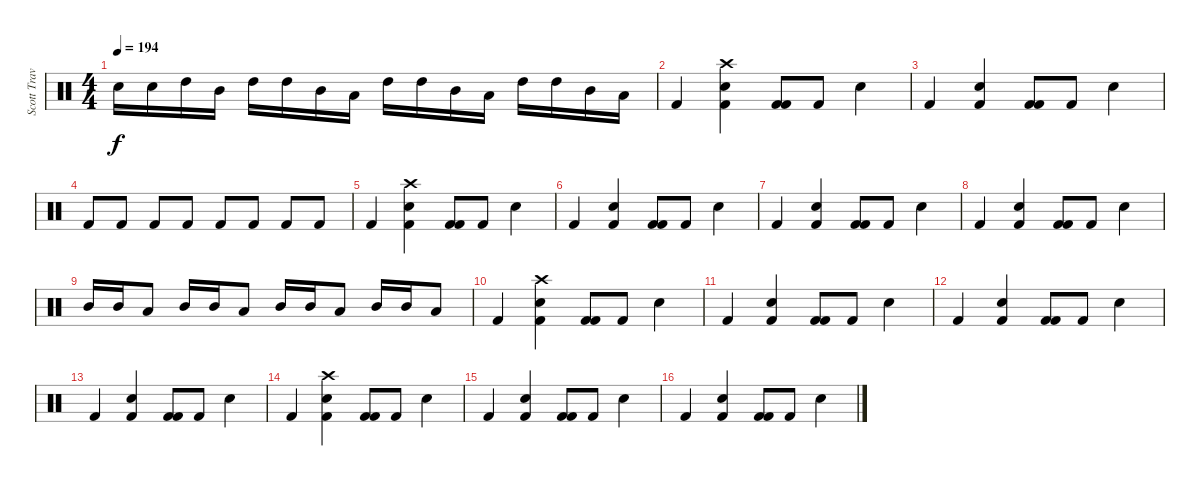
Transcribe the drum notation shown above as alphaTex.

\track ("Scott Travis" "Scott Trav") {instrument percussion}
\staff {score}
\articulation defaults
\ts (4 4)
\tempo 194
\clef neutral
\ks c "Snare (hit) 2".16{dy f} "Snare (hit) 2".16 "High Tom (hit)".16 "Mid Tom (hit)".16 "High Tom (hit)".16 "High Tom (hit)".16 "Mid Tom (hit)".16 "Low Tom (hit)".16 "High Tom (hit)".16 "High Tom (hit)".16 "Mid Tom (hit)".16 "Low Tom (hit)".16 "High Tom (hit)".16 "High Tom (hit)".16 "Mid Tom (hit)".16 "Low Tom (hit)".16
|
"Kick (hit) 2".4 ("Kick (hit) 2" "Crash high (hit)" "Snare (hit) 2").4 ("Kick (hit) 2" "Kick (hit) 2").8 "Kick (hit) 2".8 "Snare (hit) 2".4 |
"Kick (hit) 2".4 ("Kick (hit) 2" "Snare (hit) 2").4 ("Kick (hit) 2" "Kick (hit) 2").8 "Kick (hit) 2".8 "Snare (hit) 2".4 |
"Kick (hit) 2".8 "Kick (hit) 2".8 "Kick (hit) 2".8 "Kick (hit) 2".8 "Kick (hit) 2".8 "Kick (hit) 2".8 "Kick (hit) 2".8 "Kick (hit) 2".8 |
"Kick (hit) 2".4 ("Kick (hit) 2" "Crash high (hit)" "Snare (hit) 2").4 ("Kick (hit) 2" "Kick (hit) 2").8 "Kick (hit) 2".8 "Snare (hit) 2".4 |
"Kick (hit) 2".4 ("Kick (hit) 2" "Snare (hit) 2").4 ("Kick (hit) 2" "Kick (hit) 2").8 "Kick (hit) 2".8 "Snare (hit) 2".4 |
"Kick (hit) 2".4 ("Kick (hit) 2" "Snare (hit) 2").4 ("Kick (hit) 2" "Kick (hit) 2").8 "Kick (hit) 2".8 "Snare (hit) 2".4 |
"Kick (hit) 2".4 ("Kick (hit) 2" "Snare (hit) 2").4 ("Kick (hit) 2" "Kick (hit) 2").8 "Kick (hit) 2".8 "Snare (hit) 2".4 |
"Mid Tom (hit)".16 "Mid Tom (hit)".16 "Low Tom (hit)".8 "Mid Tom (hit)".16 "Mid Tom (hit)".16 "Low Tom (hit)".8 "Mid Tom (hit)".16 "Mid Tom (hit)".16 "Low Tom (hit)".8 "Mid Tom (hit)".16 "Mid Tom (hit)".16 "Low Tom (hit)".8 |
"Kick (hit) 2".4 ("Kick (hit) 2" "Crash high (hit)" "Snare (hit) 2").4 ("Kick (hit) 2" "Kick (hit) 2").8 "Kick (hit) 2".8 "Snare (hit) 2".4 |
"Kick (hit) 2".4 ("Kick (hit) 2" "Snare (hit) 2").4 ("Kick (hit) 2" "Kick (hit) 2").8 "Kick (hit) 2".8 "Snare (hit) 2".4 |
"Kick (hit) 2".4 ("Kick (hit) 2" "Snare (hit) 2").4 ("Kick (hit) 2" "Kick (hit) 2").8 "Kick (hit) 2".8 "Snare (hit) 2".4 |
"Kick (hit) 2".4 ("Kick (hit) 2" "Snare (hit) 2").4 ("Kick (hit) 2" "Kick (hit) 2").8 "Kick (hit) 2".8 "Snare (hit) 2".4 |
"Kick (hit) 2".4 ("Kick (hit) 2" "Crash high (hit)" "Snare (hit) 2").4 ("Kick (hit) 2" "Kick (hit) 2").8 "Kick (hit) 2".8 "Snare (hit) 2".4 |
"Kick (hit) 2".4 ("Kick (hit) 2" "Snare (hit) 2").4 ("Kick (hit) 2" "Kick (hit) 2").8 "Kick (hit) 2".8 "Snare (hit) 2".4 |
"Kick (hit) 2".4 ("Kick (hit) 2" "Snare (hit) 2").4 ("Kick (hit) 2" "Kick (hit) 2").8 "Kick (hit) 2".8 "Snare (hit) 2".4
